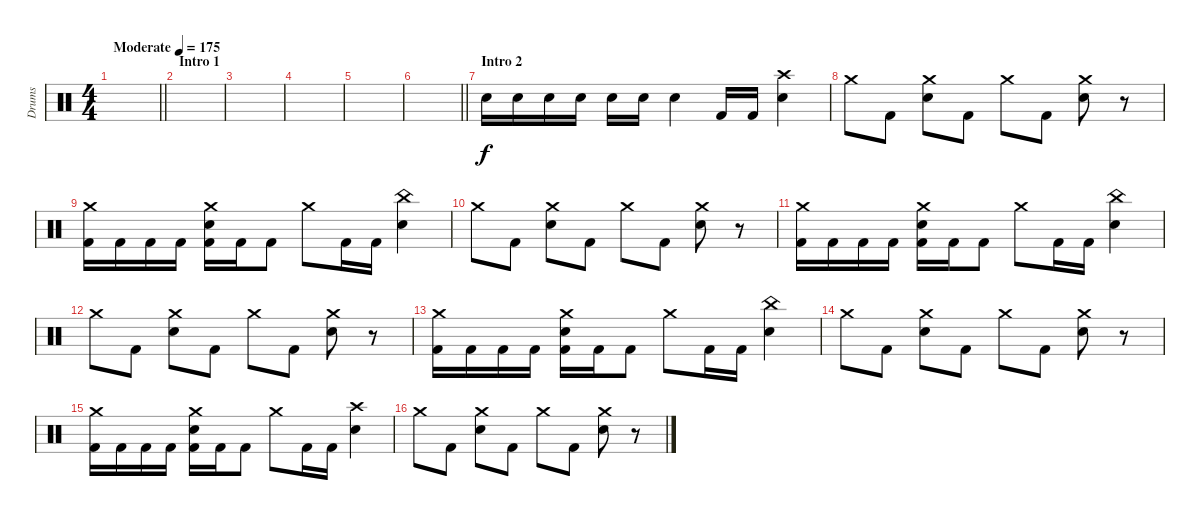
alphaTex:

\track ("Drums" "Drums") {instrument percussion}
\staff {score}
\articulation defaults
\ts (4 4)
\tempo (175 "Moderate")
\clef neutral
\barLineRight lightlight
\ks c
|
\section ("" "Intro 1")
|
|
|
|
\barLineRight lightlight
|
\section ("" "Intro 2")
"Electric Snare (hit)".16 "Electric Snare (hit)".16 "Electric Snare (hit)".16 "Electric Snare (hit)".16 "Electric Snare (hit)".16 "Electric Snare (hit)".16 "Electric Snare (hit)".4 "Kick (hit) 2".16 "Kick (hit) 2".16 ("Crash high (hit)" "Electric Snare (hit)").4 |
"Crash medium (hit)".8 "Kick (hit) 2".8 ("Crash medium (hit)" "Electric Snare (hit)").8 "Kick (hit) 2".8 "Crash medium (hit)".8 "Kick (hit) 2".8 ("Crash medium (hit)" "Electric Snare (hit)").8 r.8 |
("Crash medium (hit)" "Kick (hit) 2").16 "Kick (hit) 2".16 "Kick (hit) 2".16 "Kick (hit) 2".16 ("Crash medium (hit)" "Electric Snare (hit)" "Kick (hit) 2").16 "Kick (hit) 2".16 "Kick (hit) 2".8 "Crash medium (hit)".8 "Kick (hit) 2".16 "Kick (hit) 2".16 ("China (hit)" "Electric Snare (hit)").4 |
"Crash medium (hit)".8 "Kick (hit) 2".8 ("Crash medium (hit)" "Electric Snare (hit)").8 "Kick (hit) 2".8 "Crash medium (hit)".8 "Kick (hit) 2".8 ("Crash medium (hit)" "Electric Snare (hit)").8 r.8 |
("Crash medium (hit)" "Kick (hit) 2").16 "Kick (hit) 2".16 "Kick (hit) 2".16 "Kick (hit) 2".16 ("Crash medium (hit)" "Electric Snare (hit)" "Kick (hit) 2").16 "Kick (hit) 2".16 "Kick (hit) 2".8 "Crash medium (hit)".8 "Kick (hit) 2".16 "Kick (hit) 2".16 ("China (hit)" "Electric Snare (hit)").4 |
"Crash medium (hit)".8 "Kick (hit) 2".8 ("Crash medium (hit)" "Electric Snare (hit)").8 "Kick (hit) 2".8 "Crash medium (hit)".8 "Kick (hit) 2".8 ("Crash medium (hit)" "Electric Snare (hit)").8 r.8 |
("Crash medium (hit)" "Kick (hit) 2").16 "Kick (hit) 2".16 "Kick (hit) 2".16 "Kick (hit) 2".16 ("Crash medium (hit)" "Electric Snare (hit)" "Kick (hit) 2").16 "Kick (hit) 2".16 "Kick (hit) 2".8 "Crash medium (hit)".8 "Kick (hit) 2".16 "Kick (hit) 2".16 ("China (hit)" "Electric Snare (hit)").4 |
"Crash medium (hit)".8 "Kick (hit) 2".8 ("Crash medium (hit)" "Electric Snare (hit)").8 "Kick (hit) 2".8 "Crash medium (hit)".8 "Kick (hit) 2".8 ("Crash medium (hit)" "Electric Snare (hit)").8 r.8 |
("Crash medium (hit)" "Kick (hit) 2").16 "Kick (hit) 2".16 "Kick (hit) 2".16 "Kick (hit) 2".16 ("Crash medium (hit)" "Electric Snare (hit)" "Kick (hit) 2").16 "Kick (hit) 2".16 "Kick (hit) 2".8 "Crash medium (hit)".8 "Kick (hit) 2".16 "Kick (hit) 2".16 ("Crash high (hit)" "Electric Snare (hit)").4 |
"Crash medium (hit)".8 "Kick (hit) 2".8 ("Crash medium (hit)" "Electric Snare (hit)").8 "Kick (hit) 2".8 "Crash medium (hit)".8 "Kick (hit) 2".8 ("Crash medium (hit)" "Electric Snare (hit)").8 r.8
